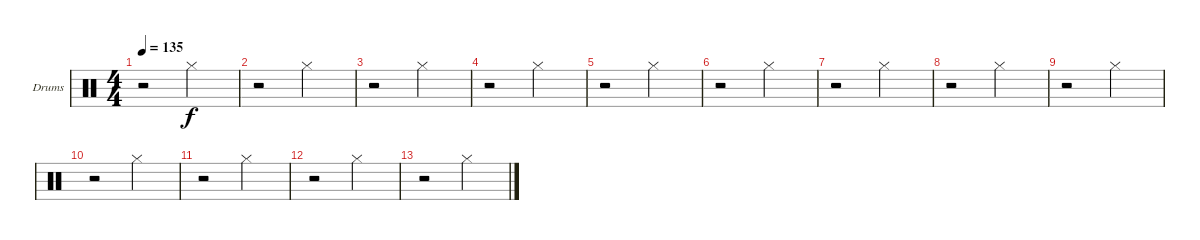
\defaultSystemsLayout 4
\bracketExtendMode groupsimilarinstruments
\firstSystemTrackNameOrientation horizontal
\otherSystemsTrackNameOrientation horizontal
\track ("Drumkit" "Drums") {instrument percussion}
\staff {score}
\articulation defaults
\ts (4 4)
\tempo 135
\clef neutral
\ks c
r.2{dy f} "Hi-Hat (closed)".2 |
r.2 "Hi-Hat (closed)".2 |
r.2 "Hi-Hat (closed)".2 |
r.2 "Hi-Hat (closed)".2 |
r.2 "Hi-Hat (closed)".2 |
r.2 "Hi-Hat (closed)".2 |
r.2 "Hi-Hat (closed)".2 |
r.2 "Hi-Hat (closed)".2 |
r.2 "Hi-Hat (closed)".2 |
r.2 "Hi-Hat (closed)".2 |
r.2 "Hi-Hat (closed)".2 |
r.2 "Hi-Hat (closed)".2 |
r.2 "Hi-Hat (closed)".2
